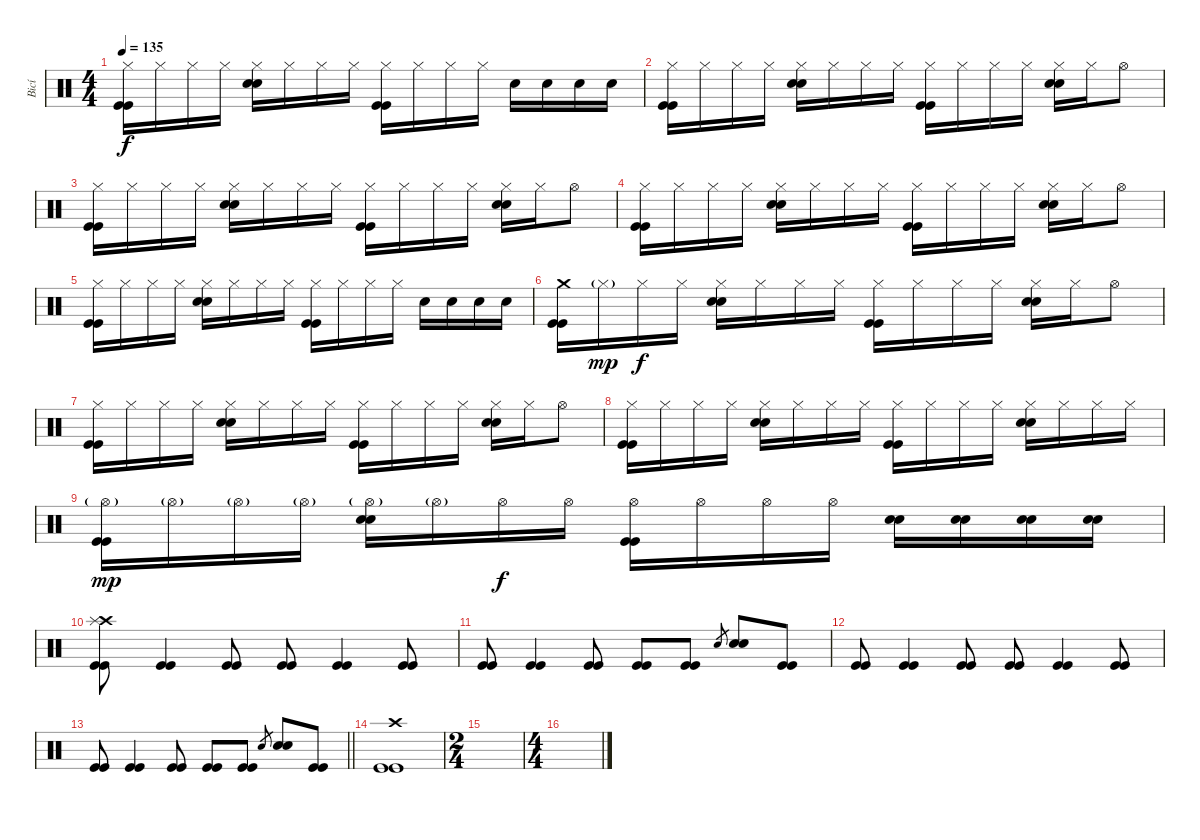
\track ("Bicí" "Bicí") {instrument percussion}
\staff {score}
\articulation defaults
\ts (4 4)
\tempo 135
\clef neutral
\ks c
("Hi-Hat (closed)" "Kick (hit)" "Kick (hit)").16{dy f} "Hi-Hat (closed)".16 "Hi-Hat (closed)".16 "Hi-Hat (closed)".16 ("Hi-Hat (closed)" "Electric Snare (hit)" "Electric Snare (hit)").16 "Hi-Hat (closed)".16 "Hi-Hat (closed)".16 "Hi-Hat (closed)".16 ("Hi-Hat (closed)" "Kick (hit)" "Kick (hit)").16 "Hi-Hat (closed)".16 "Hi-Hat (closed)".16 "Hi-Hat (closed)".16 "Electric Snare (hit)".16 "Electric Snare (hit)".16 "Electric Snare (hit)".16 "Electric Snare (hit)".16 |
("Hi-Hat (closed)" "Kick (hit)" "Kick (hit)").16 "Hi-Hat (closed)".16 "Hi-Hat (closed)".16 "Hi-Hat (closed)".16 ("Hi-Hat (closed)" "Electric Snare (hit)" "Electric Snare (hit)").16 "Hi-Hat (closed)".16 "Hi-Hat (closed)".16 "Hi-Hat (closed)".16 ("Hi-Hat (closed)" "Kick (hit)" "Kick (hit)").16 "Hi-Hat (closed)".16 "Hi-Hat (closed)".16 "Hi-Hat (closed)".16 ("Hi-Hat (closed)" "Electric Snare (hit)" "Electric Snare (hit)").16 "Hi-Hat (closed)".16 "Hi-Hat (open)".8 |
("Hi-Hat (closed)" "Kick (hit)" "Kick (hit)").16 "Hi-Hat (closed)".16 "Hi-Hat (closed)".16 "Hi-Hat (closed)".16 ("Hi-Hat (closed)" "Electric Snare (hit)" "Electric Snare (hit)").16 "Hi-Hat (closed)".16 "Hi-Hat (closed)".16 "Hi-Hat (closed)".16 ("Hi-Hat (closed)" "Kick (hit)" "Kick (hit)").16 "Hi-Hat (closed)".16 "Hi-Hat (closed)".16 "Hi-Hat (closed)".16 ("Hi-Hat (closed)" "Electric Snare (hit)" "Electric Snare (hit)").16 "Hi-Hat (closed)".16 "Hi-Hat (open)".8 |
("Hi-Hat (closed)" "Kick (hit)" "Kick (hit)").16 "Hi-Hat (closed)".16 "Hi-Hat (closed)".16 "Hi-Hat (closed)".16 ("Hi-Hat (closed)" "Electric Snare (hit)" "Electric Snare (hit)").16 "Hi-Hat (closed)".16 "Hi-Hat (closed)".16 "Hi-Hat (closed)".16 ("Hi-Hat (closed)" "Kick (hit)" "Kick (hit)").16 "Hi-Hat (closed)".16 "Hi-Hat (closed)".16 "Hi-Hat (closed)".16 ("Hi-Hat (closed)" "Electric Snare (hit)" "Electric Snare (hit)").16 "Hi-Hat (closed)".16 "Hi-Hat (open)".8 |
("Hi-Hat (closed)" "Kick (hit)" "Kick (hit)").16 "Hi-Hat (closed)".16 "Hi-Hat (closed)".16 "Hi-Hat (closed)".16 ("Hi-Hat (closed)" "Electric Snare (hit)" "Electric Snare (hit)").16 "Hi-Hat (closed)".16 "Hi-Hat (closed)".16 "Hi-Hat (closed)".16 ("Hi-Hat (closed)" "Kick (hit)" "Kick (hit)").16 "Hi-Hat (closed)".16 "Hi-Hat (closed)".16 "Hi-Hat (closed)".16 "Electric Snare (hit)".16 "Electric Snare (hit)".16 "Electric Snare (hit)".16 "Electric Snare (hit)".16 |
("Crash medium (hit)" "Kick (hit)" "Kick (hit)").16 "Hi-Hat (closed)"{g}.16{dy mp} "Hi-Hat (closed)".16{dy f} "Hi-Hat (closed)".16 ("Hi-Hat (closed)" "Electric Snare (hit)" "Electric Snare (hit)").16 "Hi-Hat (closed)".16 "Hi-Hat (closed)".16 "Hi-Hat (closed)".16 ("Hi-Hat (closed)" "Kick (hit)" "Kick (hit)").16 "Hi-Hat (closed)".16 "Hi-Hat (closed)".16 "Hi-Hat (closed)".16 ("Hi-Hat (closed)" "Electric Snare (hit)" "Electric Snare (hit)").16 "Hi-Hat (closed)".16 "Hi-Hat (open)".8 |
("Hi-Hat (closed)" "Kick (hit)" "Kick (hit)").16 "Hi-Hat (closed)".16 "Hi-Hat (closed)".16 "Hi-Hat (closed)".16 ("Hi-Hat (closed)" "Electric Snare (hit)" "Electric Snare (hit)").16 "Hi-Hat (closed)".16 "Hi-Hat (closed)".16 "Hi-Hat (closed)".16 ("Hi-Hat (closed)" "Kick (hit)" "Kick (hit)").16 "Hi-Hat (closed)".16 "Hi-Hat (closed)".16 "Hi-Hat (closed)".16 ("Hi-Hat (closed)" "Electric Snare (hit)" "Electric Snare (hit)").16 "Hi-Hat (closed)".16 "Hi-Hat (open)".8 |
("Hi-Hat (closed)" "Kick (hit)" "Kick (hit)").16 "Hi-Hat (closed)".16 "Hi-Hat (closed)".16 "Hi-Hat (closed)".16 ("Hi-Hat (closed)" "Electric Snare (hit)" "Electric Snare (hit)").16 "Hi-Hat (closed)".16 "Hi-Hat (closed)".16 "Hi-Hat (closed)".16 ("Hi-Hat (closed)" "Kick (hit)" "Kick (hit)").16 "Hi-Hat (closed)".16 "Hi-Hat (closed)".16 "Hi-Hat (closed)".16 ("Hi-Hat (closed)" "Electric Snare (hit)" "Electric Snare (hit)").16 "Hi-Hat (closed)".16 "Hi-Hat (closed)".16 "Hi-Hat (closed)".16 |
("Hi-Hat (open)"{g} "Kick (hit)" "Kick (hit)").16{dy mp} "Hi-Hat (open)"{g}.16 "Hi-Hat (open)"{g}.16 "Hi-Hat (open)"{g}.16 ("Hi-Hat (open)"{g} "Electric Snare (hit)" "Electric Snare (hit)").16 "Hi-Hat (open)"{g}.16 "Hi-Hat (open)".16{dy f} "Hi-Hat (open)".16 ("Hi-Hat (open)" "Kick (hit)" "Kick (hit)").16 "Hi-Hat (open)".16 "Hi-Hat (open)".16 "Hi-Hat (open)".16 ("Electric Snare (hit)" "Electric Snare (hit)").16 ("Electric Snare (hit)" "Electric Snare (hit)").16 ("Electric Snare (hit)" "Electric Snare (hit)").16 ("Electric Snare (hit)" "Electric Snare (hit)").16 |
("Crash high (hit)" "Splash (hit)" "Kick (hit)" "Kick (hit)").8 ("Kick (hit)" "Kick (hit)").4 ("Kick (hit)" "Kick (hit)").8 ("Kick (hit)" "Kick (hit)").8 ("Kick (hit)" "Kick (hit)").4 ("Kick (hit)" "Kick (hit)").8 |
("Kick (hit)" "Kick (hit)").8 ("Kick (hit)" "Kick (hit)").4 ("Kick (hit)" "Kick (hit)").8 ("Kick (hit)" "Kick (hit)").8 ("Kick (hit)" "Kick (hit)").8 "Electric Snare (hit)".8{gr} ("Electric Snare (hit)" "Electric Snare (hit)").8 ("Kick (hit)" "Kick (hit)").8 |
("Kick (hit)" "Kick (hit)").8 ("Kick (hit)" "Kick (hit)").4 ("Kick (hit)" "Kick (hit)").8 ("Kick (hit)" "Kick (hit)").8 ("Kick (hit)" "Kick (hit)").4 ("Kick (hit)" "Kick (hit)").8 |
\barLineRight lightlight
("Kick (hit)" "Kick (hit)").8 ("Kick (hit)" "Kick (hit)").4 ("Kick (hit)" "Kick (hit)").8 ("Kick (hit)" "Kick (hit)").8 ("Kick (hit)" "Kick (hit)").8 "Electric Snare (hit)".8{gr} ("Electric Snare (hit)" "Electric Snare (hit)").8 ("Kick (hit)" "Kick (hit)").8 |
\section ("" "")
("Crash high (hit)" "Kick (hit)" "Kick (hit)").1 |
\ts (2 4)
|
\ts (4 4)
